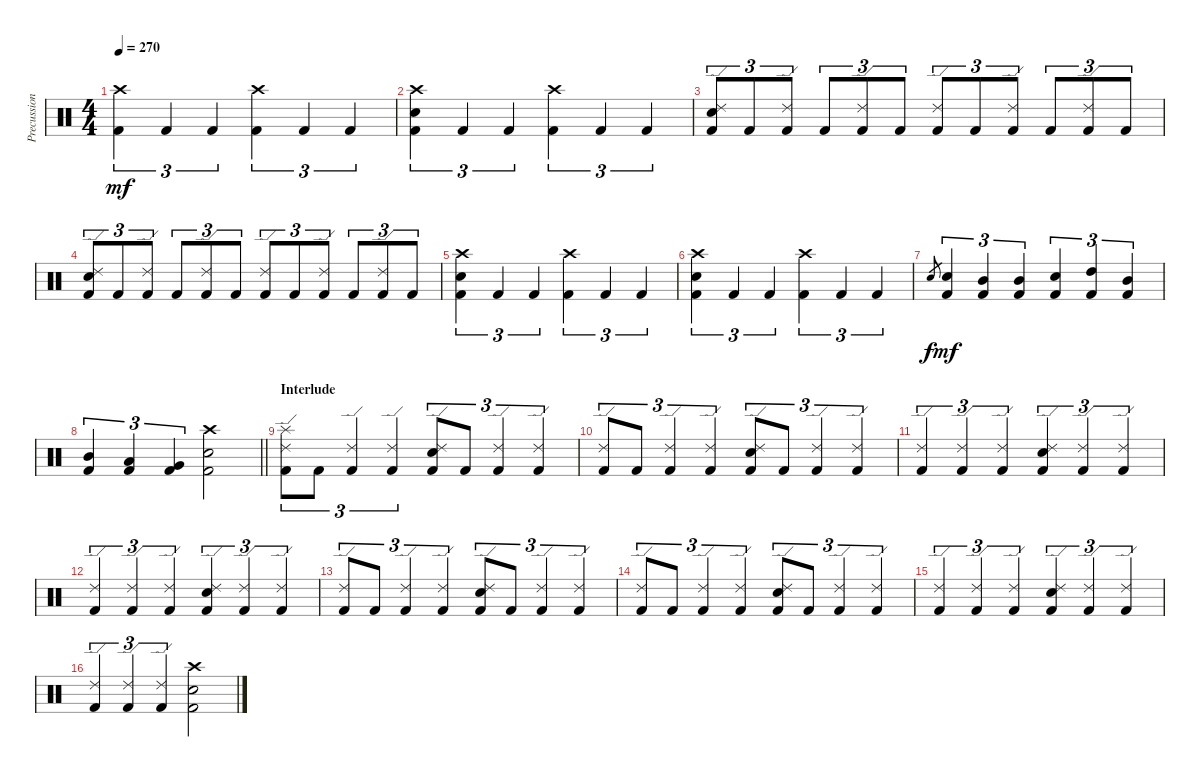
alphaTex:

\track ("Precussion" "Precussion") {instrument percussion}
\staff {score}
\articulation defaults
\ts (4 4)
\tempo 270
\clef neutral
\ks c
("Crash high (hit)" "Kick (hit) 2").4{tu (3 2) dy mf} "Kick (hit) 2".4{tu (3 2)} "Kick (hit) 2".4{tu (3 2)} ("Crash high (hit)" "Kick (hit) 2").4{tu (3 2)} "Kick (hit) 2".4{tu (3 2)} "Kick (hit) 2".4{tu (3 2)} |
("Crash high (hit)" "Electric Snare (hit)" "Kick (hit) 2").4{tu (3 2)} "Kick (hit) 2".4{tu (3 2)} "Kick (hit) 2".4{tu (3 2)} ("Crash high (hit)" "Kick (hit) 2").4{tu (3 2)} "Kick (hit) 2".4{tu (3 2)} "Kick (hit) 2".4{tu (3 2)} |
("Ride (edge) 2" "Electric Snare (hit)" "Kick (hit) 2").8{tu (3 2)} "Kick (hit) 2".8{tu (3 2)} ("Ride (edge) 2" "Kick (hit) 2").8{tu (3 2)} "Kick (hit) 2".8{tu (3 2)} ("Ride (edge) 2" "Kick (hit) 2").8{tu (3 2)} "Kick (hit) 2".8{tu (3 2)} ("Ride (edge) 2" "Kick (hit) 2").8{tu (3 2)} "Kick (hit) 2".8{tu (3 2)} ("Ride (edge) 2" "Kick (hit) 2").8{tu (3 2)} "Kick (hit) 2".8{tu (3 2)} ("Ride (edge) 2" "Kick (hit) 2").8{tu (3 2)} "Kick (hit) 2".8{tu (3 2)} |
("Ride (edge) 2" "Electric Snare (hit)" "Kick (hit) 2").8{tu (3 2)} "Kick (hit) 2".8{tu (3 2)} ("Ride (edge) 2" "Kick (hit) 2").8{tu (3 2)} "Kick (hit) 2".8{tu (3 2)} ("Ride (edge) 2" "Kick (hit) 2").8{tu (3 2)} "Kick (hit) 2".8{tu (3 2)} ("Ride (edge) 2" "Kick (hit) 2").8{tu (3 2)} "Kick (hit) 2".8{tu (3 2)} ("Ride (edge) 2" "Kick (hit) 2").8{tu (3 2)} "Kick (hit) 2".8{tu (3 2)} ("Ride (edge) 2" "Kick (hit) 2").8{tu (3 2)} "Kick (hit) 2".8{tu (3 2)} |
("Crash high (hit)" "Electric Snare (hit)" "Kick (hit) 2").4{tu (3 2)} "Kick (hit) 2".4{tu (3 2)} "Kick (hit) 2".4{tu (3 2)} ("Crash high (hit)" "Kick (hit) 2").4{tu (3 2)} "Kick (hit) 2".4{tu (3 2)} "Kick (hit) 2".4{tu (3 2)} |
("Crash high (hit)" "Electric Snare (hit)" "Kick (hit) 2").4{tu (3 2)} "Kick (hit) 2".4{tu (3 2)} "Kick (hit) 2".4{tu (3 2)} ("Crash high (hit)" "Kick (hit) 2").4{tu (3 2)} "Kick (hit) 2".4{tu (3 2)} "Kick (hit) 2".4{tu (3 2)} |
"Electric Snare (hit)".8{gr dy f} ("Electric Snare (hit)" "Kick (hit) 2").4{tu (3 2) dy mf} ("Mid Tom (hit)" "Kick (hit) 2").4{tu (3 2)} ("Mid Tom (hit)" "Kick (hit) 2").4{tu (3 2)} ("Electric Snare (hit)" "Kick (hit) 2").4{tu (3 2)} ("High Tom (hit)" "Kick (hit) 2").4{tu (3 2)} ("Mid Tom (hit)" "Kick (hit) 2").4{tu (3 2)} |
\barLineRight lightlight
("Mid Tom (hit)" "Kick (hit) 2").4{tu (3 2)} ("Low Tom (hit)" "Kick (hit) 2").4{tu (3 2)} ("Very Low Tom (hit)" "Kick (hit) 2").4{tu (3 2)} ("Crash high (hit)" "Electric Snare (hit)" "Kick (hit) 2").2 |
\section ("" "Interlude")
("Splash (hit)" "Ride (edge) 2" "Kick (hit) 2").8{tu (3 2)} "Kick (hit) 2".8{tu (3 2)} ("Ride (edge) 2" "Kick (hit) 2").4{tu (3 2)} ("Ride (edge) 2" "Kick (hit) 2").4{tu (3 2)} ("Ride (edge) 2" "Electric Snare (hit)" "Kick (hit) 2").8{tu (3 2)} "Kick (hit) 2".8{tu (3 2)} ("Ride (edge) 2" "Kick (hit) 2").4{tu (3 2)} ("Ride (edge) 2" "Kick (hit) 2").4{tu (3 2)} |
("Ride (edge) 2" "Kick (hit) 2").8{tu (3 2)} "Kick (hit) 2".8{tu (3 2)} ("Ride (edge) 2" "Kick (hit) 2").4{tu (3 2)} ("Ride (edge) 2" "Kick (hit) 2").4{tu (3 2)} ("Ride (edge) 2" "Electric Snare (hit)" "Kick (hit) 2").8{tu (3 2)} "Kick (hit) 2".8{tu (3 2)} ("Ride (edge) 2" "Kick (hit) 2").4{tu (3 2)} ("Ride (edge) 2" "Kick (hit) 2").4{tu (3 2)} |
("Ride (edge) 2" "Kick (hit) 2").4{tu (3 2)} ("Ride (edge) 2" "Kick (hit) 2").4{tu (3 2)} ("Ride (edge) 2" "Kick (hit) 2").4{tu (3 2)} ("Ride (edge) 2" "Electric Snare (hit)" "Kick (hit) 2").4{tu (3 2)} ("Ride (edge) 2" "Kick (hit) 2").4{tu (3 2)} ("Ride (edge) 2" "Kick (hit) 2").4{tu (3 2)} |
("Ride (edge) 2" "Kick (hit) 2").4{tu (3 2)} ("Ride (edge) 2" "Kick (hit) 2").4{tu (3 2)} ("Ride (edge) 2" "Kick (hit) 2").4{tu (3 2)} ("Ride (edge) 2" "Electric Snare (hit)" "Kick (hit) 2").4{tu (3 2)} ("Ride (edge) 2" "Kick (hit) 2").4{tu (3 2)} ("Ride (edge) 2" "Kick (hit) 2").4{tu (3 2)} |
("Ride (edge) 2" "Kick (hit) 2").8{tu (3 2)} "Kick (hit) 2".8{tu (3 2)} ("Ride (edge) 2" "Kick (hit) 2").4{tu (3 2)} ("Ride (edge) 2" "Kick (hit) 2").4{tu (3 2)} ("Ride (edge) 2" "Electric Snare (hit)" "Kick (hit) 2").8{tu (3 2)} "Kick (hit) 2".8{tu (3 2)} ("Ride (edge) 2" "Kick (hit) 2").4{tu (3 2)} ("Ride (edge) 2" "Kick (hit) 2").4{tu (3 2)} |
("Ride (edge) 2" "Kick (hit) 2").8{tu (3 2)} "Kick (hit) 2".8{tu (3 2)} ("Ride (edge) 2" "Kick (hit) 2").4{tu (3 2)} ("Ride (edge) 2" "Kick (hit) 2").4{tu (3 2)} ("Ride (edge) 2" "Electric Snare (hit)" "Kick (hit) 2").8{tu (3 2)} "Kick (hit) 2".8{tu (3 2)} ("Ride (edge) 2" "Kick (hit) 2").4{tu (3 2)} ("Ride (edge) 2" "Kick (hit) 2").4{tu (3 2)} |
("Ride (edge) 2" "Kick (hit) 2").4{tu (3 2)} ("Ride (edge) 2" "Kick (hit) 2").4{tu (3 2)} ("Ride (edge) 2" "Kick (hit) 2").4{tu (3 2)} ("Ride (edge) 2" "Electric Snare (hit)" "Kick (hit) 2").4{tu (3 2)} ("Ride (edge) 2" "Kick (hit) 2").4{tu (3 2)} ("Ride (edge) 2" "Kick (hit) 2").4{tu (3 2)} |
("Ride (edge) 2" "Kick (hit) 2").4{tu (3 2)} ("Ride (edge) 2" "Kick (hit) 2").4{tu (3 2)} ("Ride (edge) 2" "Kick (hit) 2").4{tu (3 2)} ("Crash high (hit)" "Electric Snare (hit)" "Kick (hit) 2").2
